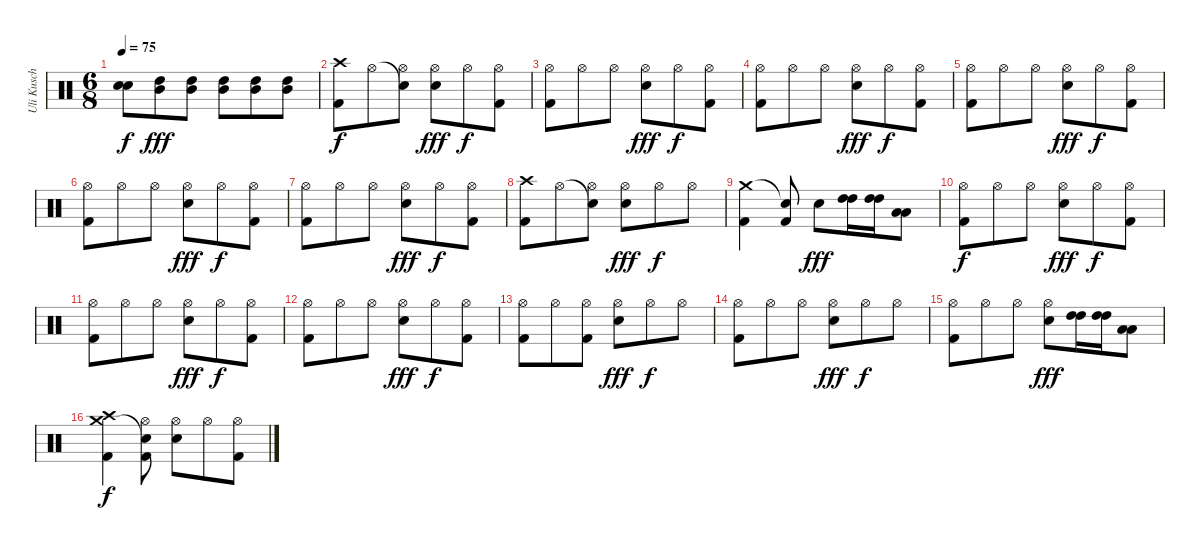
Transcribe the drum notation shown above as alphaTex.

\track ("Uli Kusch" "Uli Kusch") {instrument percussion}
\staff {score}
\articulation defaults
\ts (6 8)
\tempo 75
\clef neutral
\ks c
("Snare (hit)"{t} "Snare (hit)"{t}).8{dy f} ("High Tom (hit)" "Mid Tom (hit)").8{dy fff} ("High Tom (hit)" "Mid Tom (hit)").8 ("High Tom (hit)" "Mid Tom (hit)").8 ("High Tom (hit)" "Mid Tom (hit)").8 ("High Tom (hit)" "Mid Tom (hit)").8 |
("Crash high (hit)" "Kick (hit) 2").8{dy f} "Hi-Hat (open)".8 ("Snare (hit)"{t} "Hi-Hat (open)").8 ("Hi-Hat (open)" "Electric Snare (hit)").8{dy fff} "Hi-Hat (open)".8{dy f} ("Hi-Hat (open)" "Kick (hit) 2").8 |
("Hi-Hat (open)" "Kick (hit) 2").8 "Hi-Hat (open)".8 "Hi-Hat (open)".8 ("Hi-Hat (open)" "Electric Snare (hit)").8{dy fff} "Hi-Hat (open)".8{dy f} ("Hi-Hat (open)" "Kick (hit) 2").8 |
("Hi-Hat (open)" "Kick (hit) 2").8 "Hi-Hat (open)".8 "Hi-Hat (open)".8 ("Hi-Hat (open)" "Electric Snare (hit)").8{dy fff} "Hi-Hat (open)".8{dy f} ("Hi-Hat (open)" "Kick (hit) 2").8 |
("Hi-Hat (open)" "Kick (hit) 2").8 "Hi-Hat (open)".8 "Hi-Hat (open)".8 ("Hi-Hat (open)" "Electric Snare (hit)").8{dy fff} "Hi-Hat (open)".8{dy f} ("Hi-Hat (open)" "Kick (hit) 2").8 |
("Hi-Hat (open)" "Kick (hit) 2").8 "Hi-Hat (open)".8 "Hi-Hat (open)".8 ("Hi-Hat (open)" "Electric Snare (hit)").8{dy fff} "Hi-Hat (open)".8{dy f} ("Hi-Hat (open)" "Kick (hit) 2").8 |
("Hi-Hat (open)" "Kick (hit) 2").8 "Hi-Hat (open)".8 "Hi-Hat (open)".8 ("Hi-Hat (open)" "Electric Snare (hit)").8{dy fff} "Hi-Hat (open)".8{dy f} ("Hi-Hat (open)" "Kick (hit) 2").8 |
("Crash high (hit)" "Kick (hit) 2").8 "Hi-Hat (open)".8 ("Snare (hit)"{t} "Hi-Hat (open)").8 ("Hi-Hat (open)" "Electric Snare (hit)").8{dy fff} "Hi-Hat (open)".8{dy f} "Hi-Hat (open)".8 |
("Crash medium (hit)" "Kick (hit) 2").4 ("Snare (hit)"{t} "Kick (hit) 2").8 "Electric Snare (hit)".8{dy fff} ("High Tom (hit)" "High Tom (hit)").16 ("High Tom (hit)" "High Tom (hit)").16 ("Low Tom (hit)" "Low Tom (hit)").8 |
("Hi-Hat (open)" "Kick (hit) 2").8{dy f} "Hi-Hat (open)".8 "Hi-Hat (open)".8 ("Hi-Hat (open)" "Electric Snare (hit)").8{dy fff} "Hi-Hat (open)".8{dy f} ("Hi-Hat (open)" "Kick (hit) 2").8 |
("Hi-Hat (open)" "Kick (hit) 2").8 "Hi-Hat (open)".8 "Hi-Hat (open)".8 ("Hi-Hat (open)" "Electric Snare (hit)").8{dy fff} "Hi-Hat (open)".8{dy f} ("Hi-Hat (open)" "Kick (hit) 2").8 |
("Hi-Hat (open)" "Kick (hit) 2").8 "Hi-Hat (open)".8 "Hi-Hat (open)".8 ("Hi-Hat (open)" "Electric Snare (hit)").8{dy fff} "Hi-Hat (open)".8{dy f} ("Hi-Hat (open)" "Kick (hit) 2").8 |
("Hi-Hat (open)" "Kick (hit) 2").8 "Hi-Hat (open)".8 ("Hi-Hat (open)" "Kick (hit) 2").8 ("Hi-Hat (open)" "Electric Snare (hit)").8{dy fff} "Hi-Hat (open)".8{dy f} "Hi-Hat (open)".8 |
("Hi-Hat (open)" "Kick (hit) 2").8 "Hi-Hat (open)".8 "Hi-Hat (open)".8 ("Hi-Hat (open)" "Electric Snare (hit)").8{dy fff} "Hi-Hat (open)".8{dy f} "Hi-Hat (open)".8 |
("Hi-Hat (open)" "Kick (hit) 2").8 "Hi-Hat (open)".8 "Hi-Hat (open)".8 ("Hi-Hat (open)" "Electric Snare (hit)").8{dy fff} ("High Tom (hit)" "High Tom (hit)").16 ("High Tom (hit)" "High Tom (hit)").16 ("Low Tom (hit)" "Low Tom (hit)").8 |
("Crash medium (hit)" "Crash high (hit)" "Kick (hit) 2").4{dy f} ("Snare (hit)"{t} "Hi-Hat (open)" "Kick (hit) 2").8 ("Hi-Hat (open)" "Electric Snare (hit)").8 "Hi-Hat (open)".8 ("Hi-Hat (open)" "Kick (hit) 2").8
